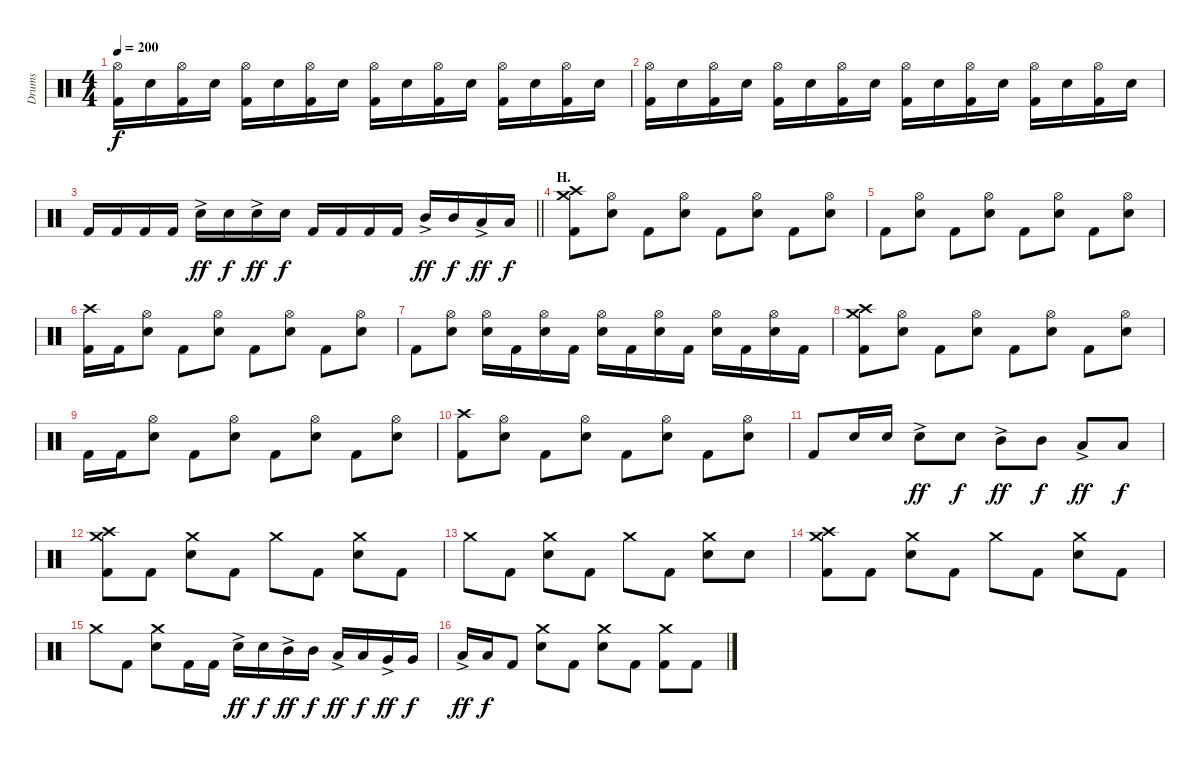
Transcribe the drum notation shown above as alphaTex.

\track ("Drums" "Drums") {instrument percussion}
\staff {score}
\articulation defaults
\ts (4 4)
\tempo 200
\clef neutral
\ks c
("Hi-Hat (open)" "Kick (hit) 2").16{dy f} "Electric Snare (hit)".16 ("Hi-Hat (open)" "Kick (hit) 2").16 "Electric Snare (hit)".16 ("Hi-Hat (open)" "Kick (hit) 2").16 "Electric Snare (hit)".16 ("Hi-Hat (open)" "Kick (hit) 2").16 "Electric Snare (hit)".16 ("Hi-Hat (open)" "Kick (hit) 2").16 "Electric Snare (hit)".16 ("Hi-Hat (open)" "Kick (hit) 2").16 "Electric Snare (hit)".16 ("Hi-Hat (open)" "Kick (hit) 2").16 "Electric Snare (hit)".16 ("Hi-Hat (open)" "Kick (hit) 2").16 "Electric Snare (hit)".16 |
("Hi-Hat (open)" "Kick (hit) 2").16 "Electric Snare (hit)".16 ("Hi-Hat (open)" "Kick (hit) 2").16 "Electric Snare (hit)".16 ("Hi-Hat (open)" "Kick (hit) 2").16 "Electric Snare (hit)".16 ("Hi-Hat (open)" "Kick (hit) 2").16 "Electric Snare (hit)".16 ("Hi-Hat (open)" "Kick (hit) 2").16 "Electric Snare (hit)".16 ("Hi-Hat (open)" "Kick (hit) 2").16 "Electric Snare (hit)".16 ("Hi-Hat (open)" "Kick (hit) 2").16 "Electric Snare (hit)".16 ("Hi-Hat (open)" "Kick (hit) 2").16 "Electric Snare (hit)".16 |
\barLineRight lightlight "Kick (hit) 2".16 "Kick (hit) 2".16 "Kick (hit) 2".16 "Kick (hit) 2".16 "Electric Snare (hit)"{ac}.16{dy ff} "Electric Snare (hit)".16{dy f} "Electric Snare (hit)"{ac}.16{dy ff} "Electric Snare (hit)".16{dy f} "Kick (hit) 2".16 "Kick (hit) 2".16 "Kick (hit) 2".16 "Kick (hit) 2".16 "Mid Tom (hit)"{ac}.16{dy ff} "Mid Tom (hit)".16{dy f} "Low Tom (hit)"{ac}.16{dy ff} "Low Tom (hit)".16{dy f}
|
\section ("" "H.")
("Crash medium (hit)" "Crash high (hit)" "Kick (hit) 2").8 ("Hi-Hat (open)" "Electric Snare (hit)").8 "Kick (hit) 2".8 ("Hi-Hat (open)" "Electric Snare (hit)").8 "Kick (hit) 2".8 ("Hi-Hat (open)" "Electric Snare (hit)").8 "Kick (hit) 2".8 ("Hi-Hat (open)" "Electric Snare (hit)").8 |
"Kick (hit) 2".8 ("Hi-Hat (open)" "Electric Snare (hit)").8 "Kick (hit) 2".8 ("Hi-Hat (open)" "Electric Snare (hit)").8 "Kick (hit) 2".8 ("Hi-Hat (open)" "Electric Snare (hit)").8 "Kick (hit) 2".8 ("Hi-Hat (open)" "Electric Snare (hit)").8 |
("Crash high (hit)" "Kick (hit) 2").16 "Kick (hit) 2".16 ("Hi-Hat (open)" "Electric Snare (hit)").8 "Kick (hit) 2".8 ("Hi-Hat (open)" "Electric Snare (hit)").8 "Kick (hit) 2".8 ("Hi-Hat (open)" "Electric Snare (hit)").8 "Kick (hit) 2".8 ("Hi-Hat (open)" "Electric Snare (hit)").8 |
"Kick (hit) 2".8 ("Hi-Hat (open)" "Electric Snare (hit)").8 ("Hi-Hat (open)" "Electric Snare (hit)").16 "Kick (hit) 2".16 ("Hi-Hat (open)" "Electric Snare (hit)").16 "Kick (hit) 2".16 ("Hi-Hat (open)" "Electric Snare (hit)").16 "Kick (hit) 2".16 ("Hi-Hat (open)" "Electric Snare (hit)").16 "Kick (hit) 2".16 ("Hi-Hat (open)" "Electric Snare (hit)").16 "Kick (hit) 2".16 ("Hi-Hat (open)" "Electric Snare (hit)").16 "Kick (hit) 2".16 |
("Crash medium (hit)" "Crash high (hit)" "Kick (hit) 2").8 ("Hi-Hat (open)" "Electric Snare (hit)").8 "Kick (hit) 2".8 ("Hi-Hat (open)" "Electric Snare (hit)").8 "Kick (hit) 2".8 ("Hi-Hat (open)" "Electric Snare (hit)").8 "Kick (hit) 2".8 ("Hi-Hat (open)" "Electric Snare (hit)").8 |
"Kick (hit) 2".16 "Kick (hit) 2".16 ("Hi-Hat (open)" "Electric Snare (hit)").8 "Kick (hit) 2".8 ("Hi-Hat (open)" "Electric Snare (hit)").8 "Kick (hit) 2".8 ("Hi-Hat (open)" "Electric Snare (hit)").8 "Kick (hit) 2".8 ("Hi-Hat (open)" "Electric Snare (hit)").8 |
("Crash high (hit)" "Kick (hit) 2").8 ("Hi-Hat (open)" "Electric Snare (hit)").8 "Kick (hit) 2".8 ("Hi-Hat (open)" "Electric Snare (hit)").8 "Kick (hit) 2".8 ("Hi-Hat (open)" "Electric Snare (hit)").8 "Kick (hit) 2".8 ("Hi-Hat (open)" "Electric Snare (hit)").8 |
"Kick (hit) 2".8 "Electric Snare (hit)".16 "Electric Snare (hit)".16 "Electric Snare (hit)"{ac}.8{dy ff} "Electric Snare (hit)".8{dy f} "Mid Tom (hit)"{ac}.8{dy ff} "Mid Tom (hit)".8{dy f} "Low Tom (hit)"{ac}.8{dy ff} "Low Tom (hit)".8{dy f} |
("Crash medium (hit)" "Crash high (hit)" "Kick (hit) 2").8 "Kick (hit) 2".8 ("Crash medium (hit)" "Electric Snare (hit)").8 "Kick (hit) 2".8 "Crash medium (hit)".8 "Kick (hit) 2".8 ("Crash medium (hit)" "Electric Snare (hit)").8 "Kick (hit) 2".8 |
"Crash medium (hit)".8 "Kick (hit) 2".8 ("Crash medium (hit)" "Electric Snare (hit)").8 "Kick (hit) 2".8 "Crash medium (hit)".8 "Kick (hit) 2".8 ("Crash medium (hit)" "Electric Snare (hit)").8 "Electric Snare (hit)".8 |
("Crash medium (hit)" "Crash high (hit)" "Kick (hit) 2").8 "Kick (hit) 2".8 ("Crash medium (hit)" "Electric Snare (hit)").8 "Kick (hit) 2".8 "Crash medium (hit)".8 "Kick (hit) 2".8 ("Crash medium (hit)" "Electric Snare (hit)").8 "Kick (hit) 2".8 |
"Crash medium (hit)".8 "Kick (hit) 2".8 ("Crash medium (hit)" "Electric Snare (hit)").8 "Kick (hit) 2".16 "Kick (hit) 2".16 "Electric Snare (hit)"{ac}.16{dy ff} "Electric Snare (hit)".16{dy f} "Mid Tom (hit)"{ac}.16{dy ff} "Mid Tom (hit)".16{dy f} "Low Tom (hit)"{ac}.16{dy ff} "Low Tom (hit)".16{dy f} "Very Low Tom (hit)"{ac}.16{dy ff} "Very Low Tom (hit)".16{dy f} |
"Low Floor Tom (hit)"{ac}.16{dy ff} "Low Floor Tom (hit)".16{dy f} "Kick (hit) 2".8 ("Crash medium (hit)" "Electric Snare (hit)").8 "Kick (hit) 2".8 ("Crash medium (hit)" "Electric Snare (hit)").8 "Kick (hit) 2".8 ("Crash medium (hit)" "Kick (hit) 2").8 "Kick (hit) 2".8
